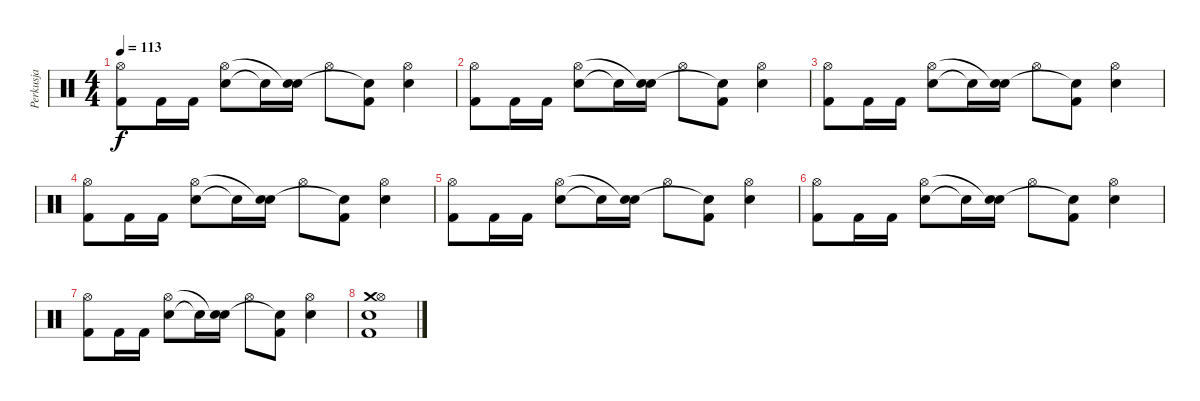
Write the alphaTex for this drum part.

\track ("Perkusja" "Perkusja") {instrument percussion}
\staff {score}
\articulation defaults
\ts (4 4)
\tempo 113
\clef neutral
\ks c
("Kick (hit) 2" "Hi-Hat (open)").8{dy f} "Kick (hit) 2".16 "Kick (hit) 2".16 ("Snare (hit) 2" "Hi-Hat (open)").8 "Snare (hit)"{t}.16 ("Snare (hit) 2" "Snare (hit)"{t}).16 "Hi-Hat (open)".8 ("Kick (hit) 2" "Snare (hit)"{t}).8 ("Snare (hit) 2" "Hi-Hat (open)").4 |
("Kick (hit) 2" "Hi-Hat (open)").8 "Kick (hit) 2".16 "Kick (hit) 2".16 ("Snare (hit) 2" "Hi-Hat (open)").8 "Snare (hit)"{t}.16 ("Snare (hit) 2" "Snare (hit)"{t}).16 "Hi-Hat (open)".8 ("Kick (hit) 2" "Snare (hit)"{t}).8 ("Snare (hit) 2" "Hi-Hat (open)").4 |
("Kick (hit) 2" "Hi-Hat (open)").8 "Kick (hit) 2".16 "Kick (hit) 2".16 ("Snare (hit) 2" "Hi-Hat (open)").8 "Snare (hit)"{t}.16 ("Snare (hit) 2" "Snare (hit)"{t}).16 "Hi-Hat (open)".8 ("Kick (hit) 2" "Snare (hit)"{t}).8 ("Snare (hit) 2" "Hi-Hat (open)").4 |
("Kick (hit) 2" "Hi-Hat (open)").8 "Kick (hit) 2".16 "Kick (hit) 2".16 ("Snare (hit) 2" "Hi-Hat (open)").8 "Snare (hit)"{t}.16 ("Snare (hit) 2" "Snare (hit)"{t}).16 "Hi-Hat (open)".8 ("Kick (hit) 2" "Snare (hit)"{t}).8 ("Snare (hit) 2" "Hi-Hat (open)").4 |
("Kick (hit) 2" "Hi-Hat (open)").8 "Kick (hit) 2".16 "Kick (hit) 2".16 ("Snare (hit) 2" "Hi-Hat (open)").8 "Snare (hit)"{t}.16 ("Snare (hit) 2" "Snare (hit)"{t}).16 "Hi-Hat (open)".8 ("Kick (hit) 2" "Snare (hit)"{t}).8 ("Snare (hit) 2" "Hi-Hat (open)").4 |
("Kick (hit) 2" "Hi-Hat (open)").8 "Kick (hit) 2".16 "Kick (hit) 2".16 ("Snare (hit) 2" "Hi-Hat (open)").8 "Snare (hit)"{t}.16 ("Snare (hit) 2" "Snare (hit)"{t}).16 "Hi-Hat (open)".8 ("Kick (hit) 2" "Snare (hit)"{t}).8 ("Snare (hit) 2" "Hi-Hat (open)").4 |
("Kick (hit) 2" "Hi-Hat (open)").8 "Kick (hit) 2".16 "Kick (hit) 2".16 ("Snare (hit) 2" "Hi-Hat (open)").8 "Snare (hit)"{t}.16 ("Snare (hit) 2" "Snare (hit)"{t}).16 "Hi-Hat (open)".8 ("Kick (hit) 2" "Snare (hit)"{t}).8 ("Snare (hit) 2" "Hi-Hat (open)").4 |
("Crash medium (hit)" "Electric Snare (hit)" "Kick (hit) 2" "Hi-Hat (open)").1
